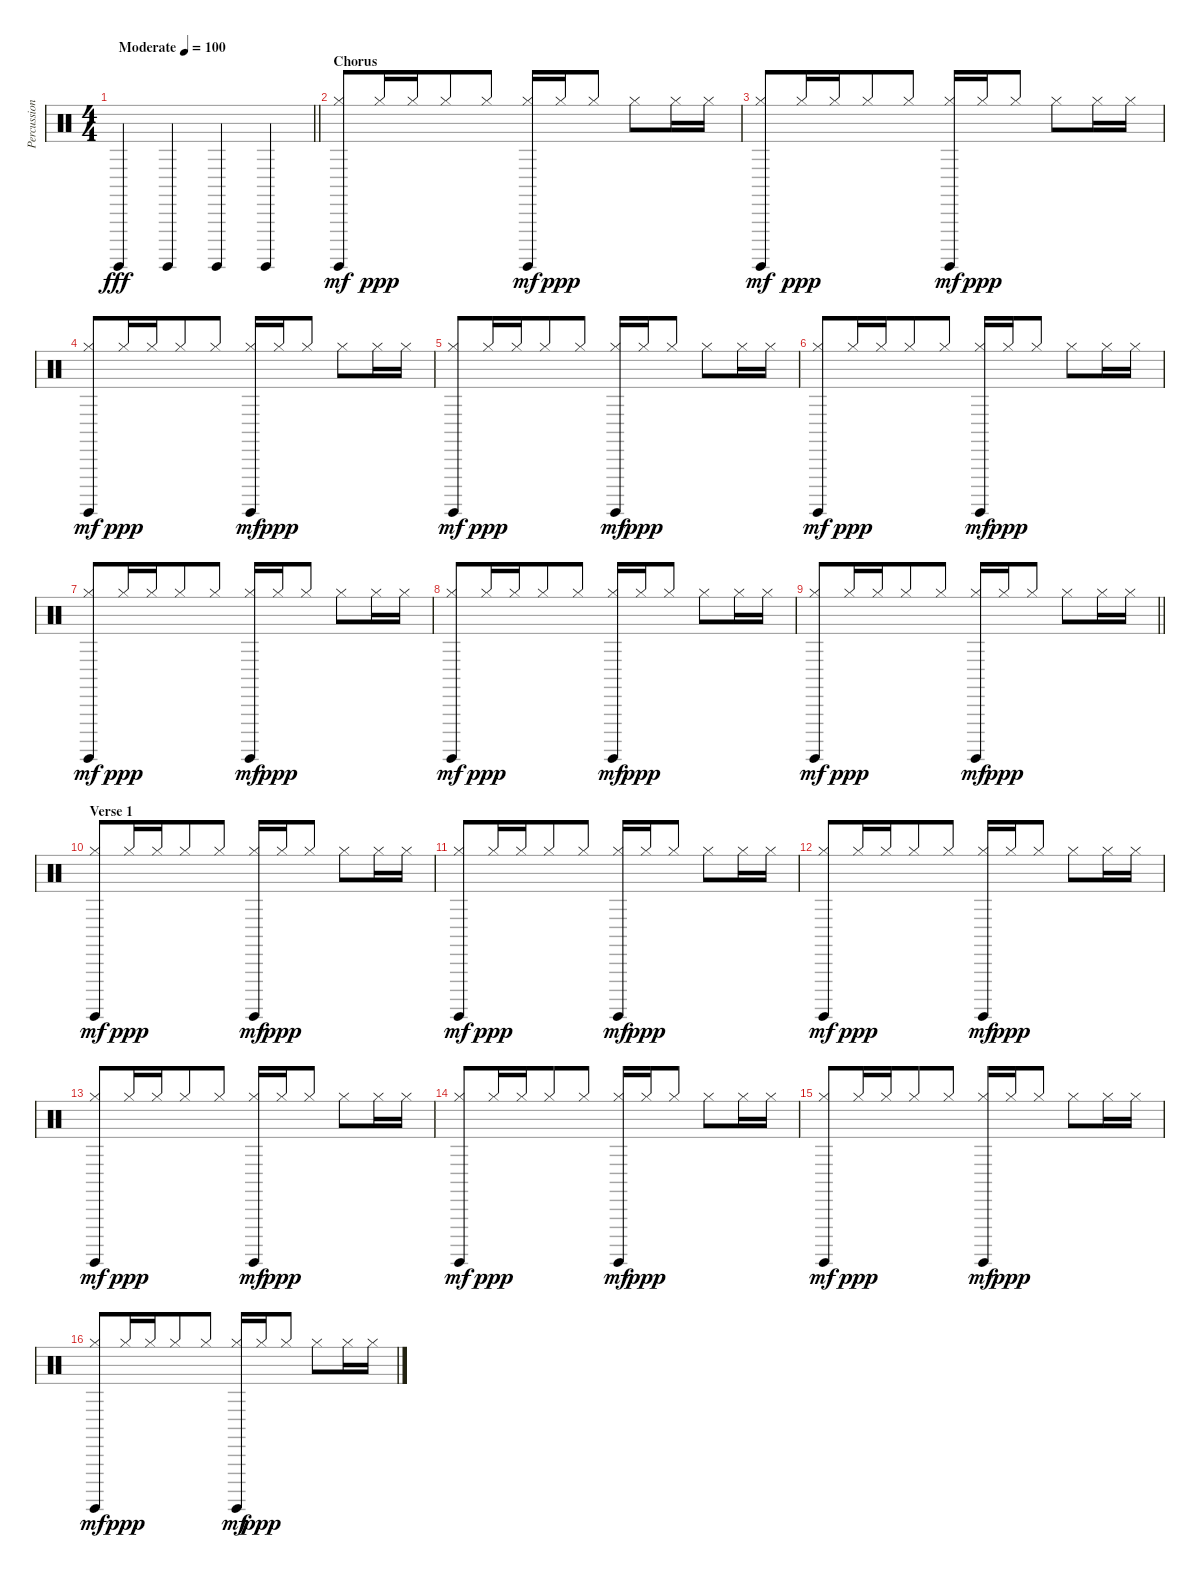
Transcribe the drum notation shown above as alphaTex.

\track ("Percussion" "Percussion") {instrument percussion}
\staff {score}
\articulation defaults
\ts (4 4)
\tempo (100 "Moderate")
\clef neutral
\barLineRight lightlight
\ks c "Surdo (hit)".4{dy fff volume 10} "Surdo (hit)".4 "Surdo (hit)".4 "Surdo (hit)".4
|
\section ("" "Chorus")
("Hi-Hat (closed)" "Surdo (hit)").8{dy mf volume 7} "Hi-Hat (closed)".16{dy ppp} "Hi-Hat (closed)".16{beam merge} "Hi-Hat (closed)".8 "Hi-Hat (closed)".8 ("Hi-Hat (closed)" "Surdo (hit)").16{dy mf} "Hi-Hat (closed)".16{dy ppp beam merge} "Hi-Hat (closed)".8 "Hi-Hat (closed)".8 "Hi-Hat (closed)".16 "Hi-Hat (closed)".16 |
("Hi-Hat (closed)" "Surdo (hit)").8{dy mf} "Hi-Hat (closed)".16{dy ppp} "Hi-Hat (closed)".16{beam merge} "Hi-Hat (closed)".8 "Hi-Hat (closed)".8 ("Hi-Hat (closed)" "Surdo (hit)").16{dy mf} "Hi-Hat (closed)".16{dy ppp beam merge} "Hi-Hat (closed)".8 "Hi-Hat (closed)".8 "Hi-Hat (closed)".16 "Hi-Hat (closed)".16 |
("Hi-Hat (closed)" "Surdo (hit)").8{dy mf} "Hi-Hat (closed)".16{dy ppp} "Hi-Hat (closed)".16{beam merge} "Hi-Hat (closed)".8 "Hi-Hat (closed)".8 ("Hi-Hat (closed)" "Surdo (hit)").16{dy mf} "Hi-Hat (closed)".16{dy ppp beam merge} "Hi-Hat (closed)".8 "Hi-Hat (closed)".8 "Hi-Hat (closed)".16 "Hi-Hat (closed)".16 |
("Hi-Hat (closed)" "Surdo (hit)").8{dy mf} "Hi-Hat (closed)".16{dy ppp} "Hi-Hat (closed)".16{beam merge} "Hi-Hat (closed)".8 "Hi-Hat (closed)".8 ("Hi-Hat (closed)" "Surdo (hit)").16{dy mf} "Hi-Hat (closed)".16{dy ppp beam merge} "Hi-Hat (closed)".8 "Hi-Hat (closed)".8 "Hi-Hat (closed)".16 "Hi-Hat (closed)".16 |
("Hi-Hat (closed)" "Surdo (hit)").8{dy mf} "Hi-Hat (closed)".16{dy ppp} "Hi-Hat (closed)".16{beam merge} "Hi-Hat (closed)".8 "Hi-Hat (closed)".8 ("Hi-Hat (closed)" "Surdo (hit)").16{dy mf} "Hi-Hat (closed)".16{dy ppp beam merge} "Hi-Hat (closed)".8 "Hi-Hat (closed)".8 "Hi-Hat (closed)".16 "Hi-Hat (closed)".16 |
("Hi-Hat (closed)" "Surdo (hit)").8{dy mf} "Hi-Hat (closed)".16{dy ppp} "Hi-Hat (closed)".16{beam merge} "Hi-Hat (closed)".8 "Hi-Hat (closed)".8 ("Hi-Hat (closed)" "Surdo (hit)").16{dy mf} "Hi-Hat (closed)".16{dy ppp beam merge} "Hi-Hat (closed)".8 "Hi-Hat (closed)".8 "Hi-Hat (closed)".16 "Hi-Hat (closed)".16 |
("Hi-Hat (closed)" "Surdo (hit)").8{dy mf} "Hi-Hat (closed)".16{dy ppp} "Hi-Hat (closed)".16{beam merge} "Hi-Hat (closed)".8 "Hi-Hat (closed)".8 ("Hi-Hat (closed)" "Surdo (hit)").16{dy mf} "Hi-Hat (closed)".16{dy ppp beam merge} "Hi-Hat (closed)".8 "Hi-Hat (closed)".8 "Hi-Hat (closed)".16 "Hi-Hat (closed)".16 |
\barLineRight lightlight
("Hi-Hat (closed)" "Surdo (hit)").8{dy mf} "Hi-Hat (closed)".16{dy ppp} "Hi-Hat (closed)".16{beam merge} "Hi-Hat (closed)".8 "Hi-Hat (closed)".8 ("Hi-Hat (closed)" "Surdo (hit)").16{dy mf} "Hi-Hat (closed)".16{dy ppp beam merge} "Hi-Hat (closed)".8 "Hi-Hat (closed)".8 "Hi-Hat (closed)".16 "Hi-Hat (closed)".16 |
\section ("" "Verse 1")
("Hi-Hat (closed)" "Surdo (hit)").8{dy mf} "Hi-Hat (closed)".16{dy ppp} "Hi-Hat (closed)".16{beam merge} "Hi-Hat (closed)".8 "Hi-Hat (closed)".8 ("Hi-Hat (closed)" "Surdo (hit)").16{dy mf} "Hi-Hat (closed)".16{dy ppp beam merge} "Hi-Hat (closed)".8 "Hi-Hat (closed)".8 "Hi-Hat (closed)".16 "Hi-Hat (closed)".16 |
("Hi-Hat (closed)" "Surdo (hit)").8{dy mf} "Hi-Hat (closed)".16{dy ppp} "Hi-Hat (closed)".16{beam merge} "Hi-Hat (closed)".8 "Hi-Hat (closed)".8 ("Hi-Hat (closed)" "Surdo (hit)").16{dy mf} "Hi-Hat (closed)".16{dy ppp beam merge} "Hi-Hat (closed)".8 "Hi-Hat (closed)".8 "Hi-Hat (closed)".16 "Hi-Hat (closed)".16 |
("Hi-Hat (closed)" "Surdo (hit)").8{dy mf} "Hi-Hat (closed)".16{dy ppp} "Hi-Hat (closed)".16{beam merge} "Hi-Hat (closed)".8 "Hi-Hat (closed)".8 ("Hi-Hat (closed)" "Surdo (hit)").16{dy mf} "Hi-Hat (closed)".16{dy ppp beam merge} "Hi-Hat (closed)".8 "Hi-Hat (closed)".8 "Hi-Hat (closed)".16 "Hi-Hat (closed)".16 |
("Hi-Hat (closed)" "Surdo (hit)").8{dy mf} "Hi-Hat (closed)".16{dy ppp} "Hi-Hat (closed)".16{beam merge} "Hi-Hat (closed)".8 "Hi-Hat (closed)".8 ("Hi-Hat (closed)" "Surdo (hit)").16{dy mf} "Hi-Hat (closed)".16{dy ppp beam merge} "Hi-Hat (closed)".8 "Hi-Hat (closed)".8 "Hi-Hat (closed)".16 "Hi-Hat (closed)".16 |
("Hi-Hat (closed)" "Surdo (hit)").8{dy mf} "Hi-Hat (closed)".16{dy ppp} "Hi-Hat (closed)".16{beam merge} "Hi-Hat (closed)".8 "Hi-Hat (closed)".8 ("Hi-Hat (closed)" "Surdo (hit)").16{dy mf} "Hi-Hat (closed)".16{dy ppp beam merge} "Hi-Hat (closed)".8 "Hi-Hat (closed)".8 "Hi-Hat (closed)".16 "Hi-Hat (closed)".16 |
("Hi-Hat (closed)" "Surdo (hit)").8{dy mf} "Hi-Hat (closed)".16{dy ppp} "Hi-Hat (closed)".16{beam merge} "Hi-Hat (closed)".8 "Hi-Hat (closed)".8 ("Hi-Hat (closed)" "Surdo (hit)").16{dy mf} "Hi-Hat (closed)".16{dy ppp beam merge} "Hi-Hat (closed)".8 "Hi-Hat (closed)".8 "Hi-Hat (closed)".16 "Hi-Hat (closed)".16 |
("Hi-Hat (closed)" "Surdo (hit)").8{dy mf} "Hi-Hat (closed)".16{dy ppp} "Hi-Hat (closed)".16{beam merge} "Hi-Hat (closed)".8 "Hi-Hat (closed)".8 ("Hi-Hat (closed)" "Surdo (hit)").16{dy mf} "Hi-Hat (closed)".16{dy ppp beam merge} "Hi-Hat (closed)".8 "Hi-Hat (closed)".8 "Hi-Hat (closed)".16 "Hi-Hat (closed)".16
